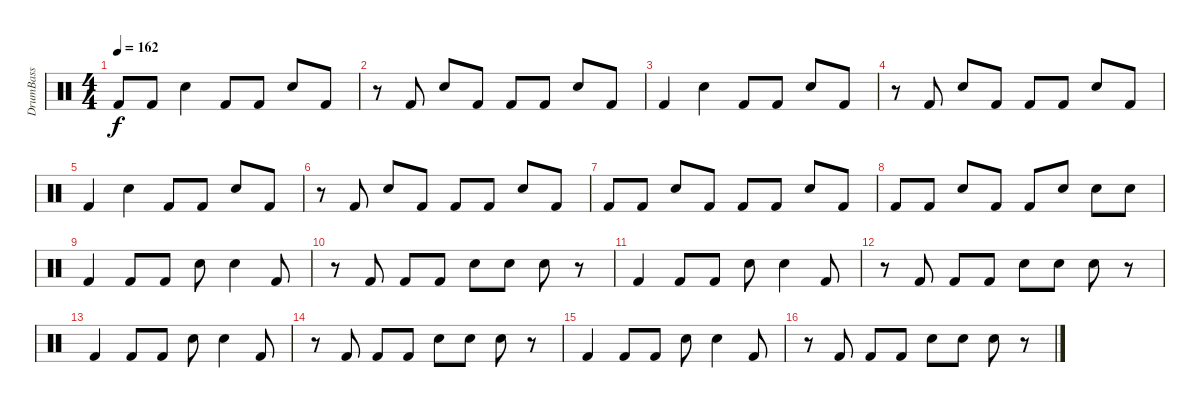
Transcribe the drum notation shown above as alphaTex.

\track ("DrumBass" "DrumBass") {instrument percussion}
\staff {score}
\articulation defaults
\ts (4 4)
\tempo 162
\clef neutral
\ks c "Kick (hit) 2".8{dy f} "Kick (hit) 2".8 "Snare (hit) 2".4 "Kick (hit) 2".8 "Kick (hit) 2".8 "Snare (hit) 2".8 "Kick (hit) 2".8
|
r.8 "Kick (hit) 2".8 "Snare (hit) 2".8 "Kick (hit) 2".8 "Kick (hit) 2".8 "Kick (hit) 2".8 "Snare (hit) 2".8 "Kick (hit) 2".8 |
"Kick (hit) 2".4 "Snare (hit) 2".4 "Kick (hit) 2".8 "Kick (hit) 2".8 "Snare (hit) 2".8 "Kick (hit) 2".8 |
r.8 "Kick (hit) 2".8 "Snare (hit) 2".8 "Kick (hit) 2".8 "Kick (hit) 2".8 "Kick (hit) 2".8 "Snare (hit) 2".8 "Kick (hit) 2".8 |
"Kick (hit) 2".4 "Snare (hit) 2".4 "Kick (hit) 2".8 "Kick (hit) 2".8 "Snare (hit) 2".8 "Kick (hit) 2".8 |
r.8 "Kick (hit) 2".8 "Snare (hit) 2".8 "Kick (hit) 2".8 "Kick (hit) 2".8 "Kick (hit) 2".8 "Snare (hit) 2".8 "Kick (hit) 2".8 |
"Kick (hit) 2".8 "Kick (hit) 2".8 "Snare (hit) 2".8 "Kick (hit) 2".8 "Kick (hit) 2".8 "Kick (hit) 2".8 "Snare (hit) 2".8 "Kick (hit) 2".8 |
"Kick (hit) 2".8 "Kick (hit) 2".8 "Snare (hit) 2".8 "Kick (hit) 2".8 "Kick (hit) 2".8 "Snare (hit) 2"{tr (38 16)}.8 "Snare (hit) 2"{tr (38 16)}.8 "Snare (hit) 2"{tr (38 16)}.8 |
"Kick (hit) 2".4 "Kick (hit) 2".8 "Kick (hit) 2".8 "Snare (hit) 2".8 "Snare (hit) 2".4 "Kick (hit) 2".8 |
r.8 "Kick (hit) 2".8 "Kick (hit) 2".8 "Kick (hit) 2".8 "Snare (hit) 2".8 "Snare (hit) 2".8 "Snare (hit) 2".8 r.8 |
"Kick (hit) 2".4 "Kick (hit) 2".8 "Kick (hit) 2".8 "Snare (hit) 2".8 "Snare (hit) 2".4 "Kick (hit) 2".8 |
r.8 "Kick (hit) 2".8 "Kick (hit) 2".8 "Kick (hit) 2".8 "Snare (hit) 2".8 "Snare (hit) 2".8 "Snare (hit) 2".8 r.8 |
"Kick (hit) 2".4 "Kick (hit) 2".8 "Kick (hit) 2".8 "Snare (hit) 2".8 "Snare (hit) 2".4 "Kick (hit) 2".8 |
r.8 "Kick (hit) 2".8 "Kick (hit) 2".8 "Kick (hit) 2".8 "Snare (hit) 2".8 "Snare (hit) 2".8 "Snare (hit) 2".8 r.8 |
"Kick (hit) 2".4 "Kick (hit) 2".8 "Kick (hit) 2".8 "Snare (hit) 2".8 "Snare (hit) 2".4 "Kick (hit) 2".8 |
r.8 "Kick (hit) 2".8 "Kick (hit) 2".8 "Kick (hit) 2".8 "Snare (hit) 2"{tr (38 16)}.8 "Snare (hit) 2"{tr (38 16)}.8 "Snare (hit) 2"{tr (38 16)}.8 r.8
